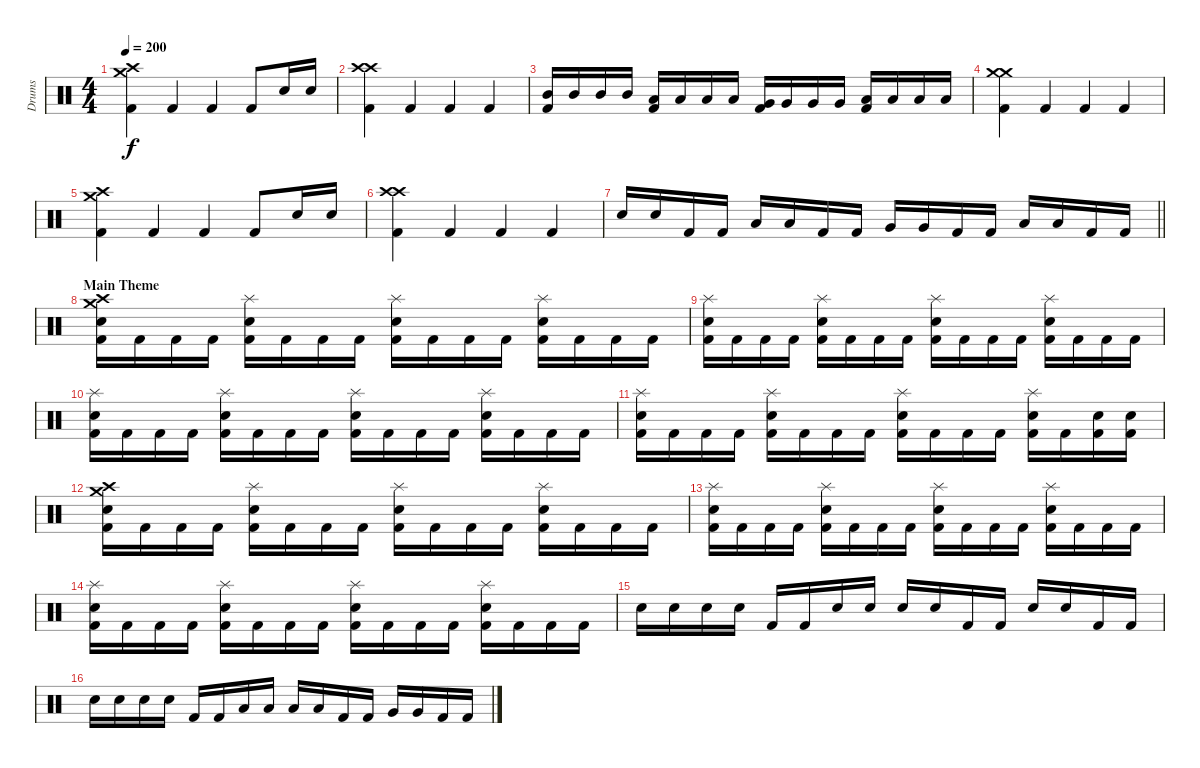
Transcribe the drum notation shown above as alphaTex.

\track ("Drums" "Drums") {instrument percussion}
\staff {score}
\articulation defaults
\ts (4 4)
\tempo 200
\clef neutral
\ks c
("Crash high (hit)" "Crash medium (hit)" "Kick (hit) 2").4{dy f} "Kick (hit) 2".4 "Kick (hit) 2".4 "Kick (hit) 2".8 "Electric Snare (hit)".16 "Electric Snare (hit)".16 |
("Crash high (hit)" "Crash high (hit)" "Kick (hit) 2").4 "Kick (hit) 2".4 "Kick (hit) 2".4 "Kick (hit) 2".4 |
("Mid Tom (hit)" "Kick (hit) 2").16 "Mid Tom (hit)".16 "Mid Tom (hit)".16 "Mid Tom (hit)".16 ("Low Tom (hit)" "Kick (hit) 2").16 "Low Tom (hit)".16 "Low Tom (hit)".16 "Low Tom (hit)".16 ("Very Low Tom (hit)" "Kick (hit) 2").16 "Very Low Tom (hit)".16 "Very Low Tom (hit)".16 "Very Low Tom (hit)".16 ("Low Floor Tom (hit)" "Kick (hit) 2").16 "Low Floor Tom (hit)".16 "Low Floor Tom (hit)".16 "Low Floor Tom (hit)".16 |
("Crash medium (hit)" "Crash medium (hit)" "Kick (hit) 2").4 "Kick (hit) 2".4 "Kick (hit) 2".4 "Kick (hit) 2".4 |
("Crash high (hit)" "Crash medium (hit)" "Kick (hit) 2").4 "Kick (hit) 2".4 "Kick (hit) 2".4 "Kick (hit) 2".8 "Electric Snare (hit)".16 "Electric Snare (hit)".16 |
("Crash high (hit)" "Crash high (hit)" "Kick (hit) 2").4 "Kick (hit) 2".4 "Kick (hit) 2".4 "Kick (hit) 2".4 |
\barLineRight lightlight "Electric Snare (hit)".16 "Electric Snare (hit)".16 "Kick (hit) 2".16 "Kick (hit) 2".16 "Low Tom (hit)".16 "Low Tom (hit)".16 "Kick (hit) 2".16 "Kick (hit) 2".16 "Very Low Tom (hit)".16 "Very Low Tom (hit)".16 "Kick (hit) 2".16 "Kick (hit) 2".16 "Low Floor Tom (hit)".16 "Low Floor Tom (hit)".16 "Kick (hit) 2".16 "Kick (hit) 2".16
|
\section ("" "Main Theme")
("Crash high (hit)" "Crash medium (hit)" "Electric Snare (hit)" "Kick (hit) 2").16 "Kick (hit) 2".16 "Kick (hit) 2".16 "Kick (hit) 2".16 ("Splash (hit)" "Electric Snare (hit)" "Kick (hit) 2").16 "Kick (hit) 2".16 "Kick (hit) 2".16 "Kick (hit) 2".16 ("Splash (hit)" "Electric Snare (hit)" "Kick (hit) 2").16 "Kick (hit) 2".16 "Kick (hit) 2".16 "Kick (hit) 2".16 ("Splash (hit)" "Electric Snare (hit)" "Kick (hit) 2").16 "Kick (hit) 2".16 "Kick (hit) 2".16 "Kick (hit) 2".16 |
("Splash (hit)" "Electric Snare (hit)" "Kick (hit) 2").16 "Kick (hit) 2".16 "Kick (hit) 2".16 "Kick (hit) 2".16 ("Splash (hit)" "Electric Snare (hit)" "Kick (hit) 2").16 "Kick (hit) 2".16 "Kick (hit) 2".16 "Kick (hit) 2".16 ("Splash (hit)" "Electric Snare (hit)" "Kick (hit) 2").16 "Kick (hit) 2".16 "Kick (hit) 2".16 "Kick (hit) 2".16 ("Splash (hit)" "Electric Snare (hit)" "Kick (hit) 2").16 "Kick (hit) 2".16 "Kick (hit) 2".16 "Kick (hit) 2".16 |
("Splash (hit)" "Electric Snare (hit)" "Kick (hit) 2").16 "Kick (hit) 2".16 "Kick (hit) 2".16 "Kick (hit) 2".16 ("Splash (hit)" "Electric Snare (hit)" "Kick (hit) 2").16 "Kick (hit) 2".16 "Kick (hit) 2".16 "Kick (hit) 2".16 ("Splash (hit)" "Electric Snare (hit)" "Kick (hit) 2").16 "Kick (hit) 2".16 "Kick (hit) 2".16 "Kick (hit) 2".16 ("Splash (hit)" "Electric Snare (hit)" "Kick (hit) 2").16 "Kick (hit) 2".16 "Kick (hit) 2".16 "Kick (hit) 2".16 |
("Splash (hit)" "Electric Snare (hit)" "Kick (hit) 2").16 "Kick (hit) 2".16 "Kick (hit) 2".16 "Kick (hit) 2".16 ("Splash (hit)" "Electric Snare (hit)" "Kick (hit) 2").16 "Kick (hit) 2".16 "Kick (hit) 2".16 "Kick (hit) 2".16 ("Splash (hit)" "Electric Snare (hit)" "Kick (hit) 2").16 "Kick (hit) 2".16 "Kick (hit) 2".16 "Kick (hit) 2".16 ("Splash (hit)" "Electric Snare (hit)" "Kick (hit) 2").16 "Kick (hit) 2".16 ("Electric Snare (hit)" "Kick (hit) 2").16 ("Electric Snare (hit)" "Kick (hit) 2").16 |
("Crash high (hit)" "Crash medium (hit)" "Electric Snare (hit)" "Kick (hit) 2").16 "Kick (hit) 2".16 "Kick (hit) 2".16 "Kick (hit) 2".16 ("Splash (hit)" "Electric Snare (hit)" "Kick (hit) 2").16 "Kick (hit) 2".16 "Kick (hit) 2".16 "Kick (hit) 2".16 ("Splash (hit)" "Electric Snare (hit)" "Kick (hit) 2").16 "Kick (hit) 2".16 "Kick (hit) 2".16 "Kick (hit) 2".16 ("Splash (hit)" "Electric Snare (hit)" "Kick (hit) 2").16 "Kick (hit) 2".16 "Kick (hit) 2".16 "Kick (hit) 2".16 |
("Splash (hit)" "Electric Snare (hit)" "Kick (hit) 2").16 "Kick (hit) 2".16 "Kick (hit) 2".16 "Kick (hit) 2".16 ("Splash (hit)" "Electric Snare (hit)" "Kick (hit) 2").16 "Kick (hit) 2".16 "Kick (hit) 2".16 "Kick (hit) 2".16 ("Splash (hit)" "Electric Snare (hit)" "Kick (hit) 2").16 "Kick (hit) 2".16 "Kick (hit) 2".16 "Kick (hit) 2".16 ("Splash (hit)" "Electric Snare (hit)" "Kick (hit) 2").16 "Kick (hit) 2".16 "Kick (hit) 2".16 "Kick (hit) 2".16 |
("Splash (hit)" "Electric Snare (hit)" "Kick (hit) 2").16 "Kick (hit) 2".16 "Kick (hit) 2".16 "Kick (hit) 2".16 ("Splash (hit)" "Electric Snare (hit)" "Kick (hit) 2").16 "Kick (hit) 2".16 "Kick (hit) 2".16 "Kick (hit) 2".16 ("Splash (hit)" "Electric Snare (hit)" "Kick (hit) 2").16 "Kick (hit) 2".16 "Kick (hit) 2".16 "Kick (hit) 2".16 ("Splash (hit)" "Electric Snare (hit)" "Kick (hit) 2").16 "Kick (hit) 2".16 "Kick (hit) 2".16 "Kick (hit) 2".16 |
"Electric Snare (hit)".16 "Electric Snare (hit)".16 "Electric Snare (hit)".16 "Electric Snare (hit)".16 "Kick (hit) 2".16 "Kick (hit) 2".16 "Electric Snare (hit)".16 "Electric Snare (hit)".16 "Electric Snare (hit)".16 "Electric Snare (hit)".16 "Kick (hit) 2".16 "Kick (hit) 2".16 "Electric Snare (hit)".16 "Electric Snare (hit)".16 "Kick (hit) 2".16 "Kick (hit) 2".16 |
"Electric Snare (hit)".16 "Electric Snare (hit)".16 "Electric Snare (hit)".16 "Electric Snare (hit)".16 "Kick (hit) 2".16 "Kick (hit) 2".16 "Low Tom (hit)".16 "Low Tom (hit)".16 "Low Tom (hit)".16 "Low Tom (hit)".16 "Kick (hit) 2".16 "Kick (hit) 2".16 "Very Low Tom (hit)".16 "Very Low Tom (hit)".16 "Kick (hit) 2".16 "Kick (hit) 2".16
